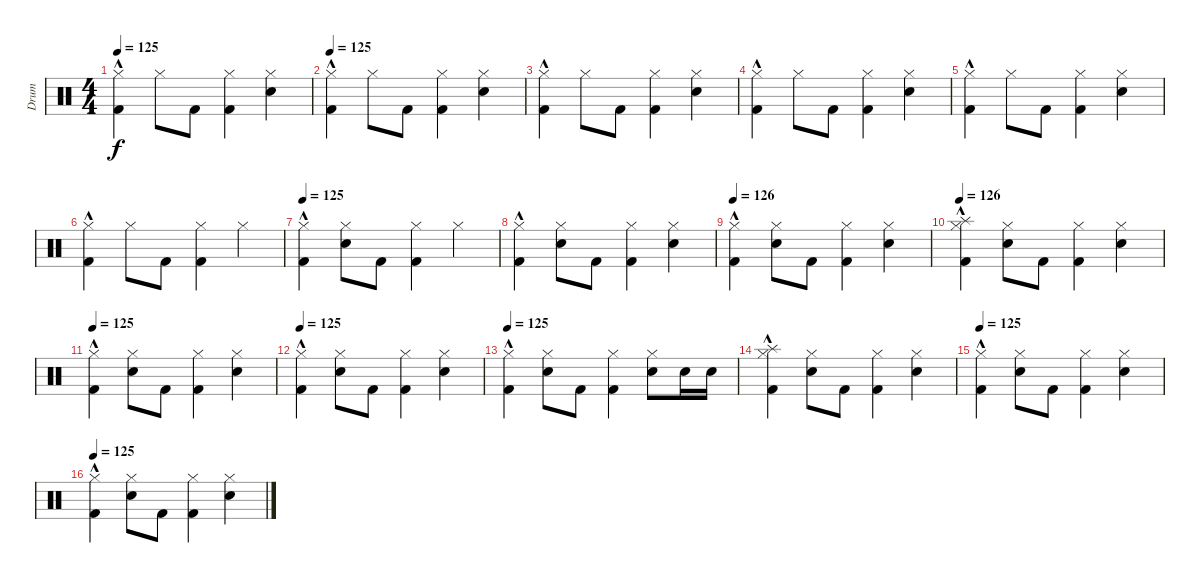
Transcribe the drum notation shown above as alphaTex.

\track ("Drum" "Drum") {instrument percussion}
\staff {score}
\articulation defaults
\ts (4 4)
\tempo 125
\clef neutral
\ks c
("Hi-Hat (closed)" "Kick (hit) 2"{hac}).4{dy f} "Hi-Hat (closed)".8 "Kick (hit) 2".8 ("Hi-Hat (closed)" "Kick (hit) 2").4 ("Hi-Hat (closed)" "Electric Snare (hit)").4 |
\tempo 125
("Hi-Hat (closed)" "Kick (hit) 2"{hac}).4 "Hi-Hat (closed)".8 "Kick (hit) 2".8 ("Hi-Hat (closed)" "Kick (hit) 2").4 ("Hi-Hat (closed)" "Electric Snare (hit)").4 |
("Hi-Hat (closed)" "Kick (hit) 2"{hac}).4 "Hi-Hat (closed)".8 "Kick (hit) 2".8 ("Hi-Hat (closed)" "Kick (hit) 2").4 ("Hi-Hat (closed)" "Electric Snare (hit)").4 |
("Hi-Hat (closed)" "Kick (hit) 2"{hac}).4 "Hi-Hat (closed)".8 "Kick (hit) 2".8 ("Hi-Hat (closed)" "Kick (hit) 2").4 ("Hi-Hat (closed)" "Electric Snare (hit)").4 |
("Hi-Hat (closed)" "Kick (hit) 2"{hac}).4 "Hi-Hat (closed)".8 "Kick (hit) 2".8 ("Hi-Hat (closed)" "Kick (hit) 2").4 ("Hi-Hat (closed)" "Electric Snare (hit)").4 |
("Hi-Hat (closed)" "Kick (hit) 2"{hac}).4 "Hi-Hat (closed)".8 "Kick (hit) 2".8 ("Hi-Hat (closed)" "Kick (hit) 2").4 "Hi-Hat (closed)".4 |
\tempo 125
("Kick (hit) 2"{hac} "Hi-Hat (closed)").4 ("Hi-Hat (closed)" "Electric Snare (hit)").8 "Kick (hit) 2".8 ("Kick (hit) 2" "Hi-Hat (closed)").4 "Hi-Hat (closed)".4 |
("Hi-Hat (closed)" "Kick (hit) 2"{hac}).4 ("Electric Snare (hit)" "Hi-Hat (closed)").8 "Kick (hit) 2".8 ("Hi-Hat (closed)" "Kick (hit) 2").4 ("Hi-Hat (closed)" "Electric Snare (hit)").4 |
\tempo 126
("Kick (hit) 2"{hac} "Hi-Hat (closed)").4 ("Hi-Hat (closed)" "Electric Snare (hit)").8 "Kick (hit) 2".8 ("Hi-Hat (closed)" "Kick (hit) 2").4 ("Hi-Hat (closed)" "Electric Snare (hit)").4 |
\tempo 126
("Splash (hit)" "Hi-Hat (closed)" "Kick (hit) 2"{hac}).4 ("Hi-Hat (closed)" "Electric Snare (hit)").8 "Kick (hit) 2".8 ("Kick (hit) 2" "Hi-Hat (closed)").4 ("Electric Snare (hit)" "Hi-Hat (closed)").4 |
\tempo 125
("Hi-Hat (closed)" "Kick (hit) 2"{hac}).4 ("Electric Snare (hit)" "Hi-Hat (closed)").8 "Kick (hit) 2".8 ("Hi-Hat (closed)" "Kick (hit) 2").4 ("Hi-Hat (closed)" "Electric Snare (hit)").4 |
\tempo 125
("Kick (hit) 2"{hac} "Hi-Hat (closed)").4 ("Hi-Hat (closed)" "Electric Snare (hit)").8 "Kick (hit) 2".8 ("Hi-Hat (closed)" "Kick (hit) 2").4 ("Electric Snare (hit)" "Hi-Hat (closed)").4 |
\tempo 125
("Hi-Hat (closed)" "Kick (hit) 2"{hac}).4 ("Hi-Hat (closed)" "Electric Snare (hit)").8 "Kick (hit) 2".8 ("Hi-Hat (closed)" "Kick (hit) 2").4 ("Hi-Hat (closed)" "Electric Snare (hit)").8 "Electric Snare (hit)".16 "Electric Snare (hit)".16 |
("Splash (hit)" "Kick (hit) 2"{hac} "Hi-Hat (closed)").4 ("Electric Snare (hit)" "Hi-Hat (closed)").8 "Kick (hit) 2".8 ("Hi-Hat (closed)" "Kick (hit) 2").4 ("Electric Snare (hit)" "Hi-Hat (closed)").4 |
\tempo 125
("Kick (hit) 2"{hac} "Hi-Hat (closed)").4 ("Hi-Hat (closed)" "Electric Snare (hit)").8 "Kick (hit) 2".8 ("Kick (hit) 2" "Hi-Hat (closed)").4 ("Electric Snare (hit)" "Hi-Hat (closed)").4 |
\tempo 125
("Kick (hit) 2"{hac} "Hi-Hat (closed)").4 ("Electric Snare (hit)" "Hi-Hat (closed)").8 "Kick (hit) 2".8 ("Kick (hit) 2" "Hi-Hat (closed)").4 ("Hi-Hat (closed)" "Electric Snare (hit)").4
